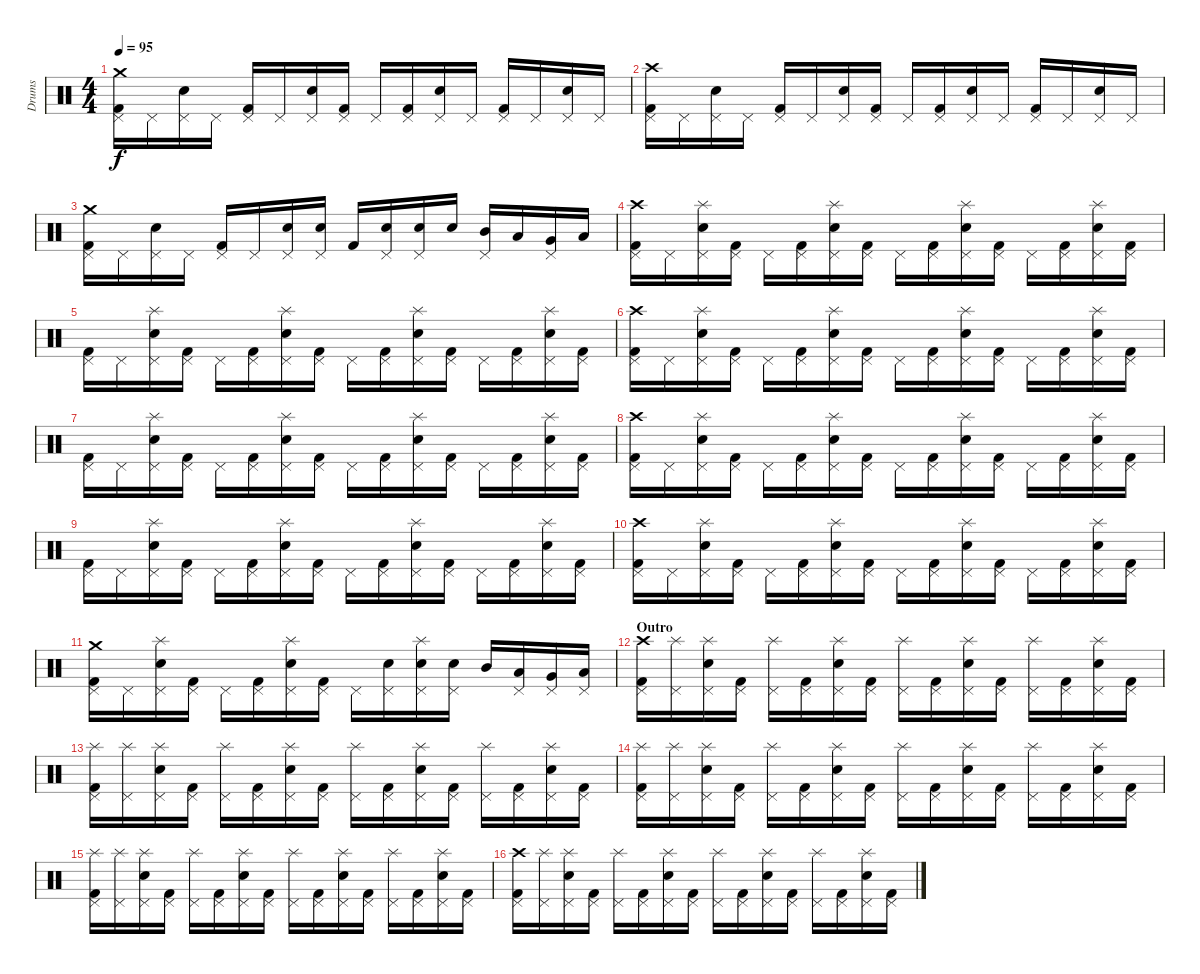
\track ("Drums" "Drums") {instrument percussion}
\staff {score}
\articulation defaults
\ts (4 4)
\tempo 95
\clef neutral
\ks c
("Kick (hit) 2" "Pedal Hi-Hat (hit)" "Crash medium (hit)").16{dy f} "Pedal Hi-Hat (hit)".16 ("Snare (hit) 2" "Pedal Hi-Hat (hit)").16 "Pedal Hi-Hat (hit)".16 ("Kick (hit) 2" "Pedal Hi-Hat (hit)").16 "Pedal Hi-Hat (hit)".16 ("Snare (hit) 2" "Pedal Hi-Hat (hit)").16 ("Kick (hit) 2" "Pedal Hi-Hat (hit)").16 "Pedal Hi-Hat (hit)".16 ("Kick (hit) 2" "Pedal Hi-Hat (hit)").16 ("Snare (hit) 2" "Pedal Hi-Hat (hit)").16 "Pedal Hi-Hat (hit)".16 ("Kick (hit) 2" "Pedal Hi-Hat (hit)").16 "Pedal Hi-Hat (hit)".16 ("Snare (hit) 2" "Pedal Hi-Hat (hit)").16 "Pedal Hi-Hat (hit)".16 |
("Kick (hit) 2" "Pedal Hi-Hat (hit)" "Crash high (hit)").16 "Pedal Hi-Hat (hit)".16 ("Snare (hit) 2" "Pedal Hi-Hat (hit)").16 "Pedal Hi-Hat (hit)".16 ("Kick (hit) 2" "Pedal Hi-Hat (hit)").16 "Pedal Hi-Hat (hit)".16 ("Snare (hit) 2" "Pedal Hi-Hat (hit)").16 ("Kick (hit) 2" "Pedal Hi-Hat (hit)").16 "Pedal Hi-Hat (hit)".16 ("Kick (hit) 2" "Pedal Hi-Hat (hit)").16 ("Snare (hit) 2" "Pedal Hi-Hat (hit)").16 "Pedal Hi-Hat (hit)".16 ("Kick (hit) 2" "Pedal Hi-Hat (hit)").16 "Pedal Hi-Hat (hit)".16 ("Snare (hit) 2" "Pedal Hi-Hat (hit)").16 "Pedal Hi-Hat (hit)".16 |
("Kick (hit) 2" "Pedal Hi-Hat (hit)" "Crash medium (hit)").16 "Pedal Hi-Hat (hit)".16 ("Snare (hit) 2" "Pedal Hi-Hat (hit)").16 "Pedal Hi-Hat (hit)".16 ("Kick (hit) 2" "Pedal Hi-Hat (hit)").16 "Pedal Hi-Hat (hit)".16 ("Snare (hit) 2" "Pedal Hi-Hat (hit)").16 ("Snare (hit) 2" "Pedal Hi-Hat (hit)").16 "Kick (hit) 2".16 ("Snare (hit) 2" "Pedal Hi-Hat (hit)").16 ("Snare (hit) 2" "Pedal Hi-Hat (hit)").16 "Snare (hit) 2".16 ("Mid Tom (hit)" "Pedal Hi-Hat (hit)").16 "Low Tom (hit)".16 ("Very Low Tom (hit)" "Pedal Hi-Hat (hit)").16 "Low Floor Tom (hit)".16 |
("Kick (hit) 2" "Pedal Hi-Hat (hit)" "Crash high (hit)").16 "Pedal Hi-Hat (hit)".16 ("Snare (hit) 2" "Pedal Hi-Hat (hit)" "Splash (hit)").16 ("Kick (hit) 2" "Pedal Hi-Hat (hit)").16 "Pedal Hi-Hat (hit)".16 ("Kick (hit) 2" "Pedal Hi-Hat (hit)").16 ("Snare (hit) 2" "Pedal Hi-Hat (hit)" "Splash (hit)").16 ("Kick (hit) 2" "Pedal Hi-Hat (hit)").16 "Pedal Hi-Hat (hit)".16 ("Kick (hit) 2" "Pedal Hi-Hat (hit)").16 ("Snare (hit) 2" "Pedal Hi-Hat (hit)" "Splash (hit)").16 ("Kick (hit) 2" "Pedal Hi-Hat (hit)").16 "Pedal Hi-Hat (hit)".16 ("Kick (hit) 2" "Pedal Hi-Hat (hit)").16 ("Snare (hit) 2" "Pedal Hi-Hat (hit)" "Splash (hit)").16 ("Kick (hit) 2" "Pedal Hi-Hat (hit)").16 |
("Kick (hit) 2" "Pedal Hi-Hat (hit)").16 "Pedal Hi-Hat (hit)".16 ("Snare (hit) 2" "Pedal Hi-Hat (hit)" "Splash (hit)").16 ("Kick (hit) 2" "Pedal Hi-Hat (hit)").16 "Pedal Hi-Hat (hit)".16 ("Kick (hit) 2" "Pedal Hi-Hat (hit)").16 ("Snare (hit) 2" "Pedal Hi-Hat (hit)" "Splash (hit)").16 ("Kick (hit) 2" "Pedal Hi-Hat (hit)").16 "Pedal Hi-Hat (hit)".16 ("Kick (hit) 2" "Pedal Hi-Hat (hit)").16 ("Snare (hit) 2" "Pedal Hi-Hat (hit)" "Splash (hit)").16 ("Kick (hit) 2" "Pedal Hi-Hat (hit)").16 "Pedal Hi-Hat (hit)".16 ("Kick (hit) 2" "Pedal Hi-Hat (hit)").16 ("Snare (hit) 2" "Pedal Hi-Hat (hit)" "Splash (hit)").16 ("Kick (hit) 2" "Pedal Hi-Hat (hit)").16 |
("Kick (hit) 2" "Pedal Hi-Hat (hit)" "Crash high (hit)").16 "Pedal Hi-Hat (hit)".16 ("Snare (hit) 2" "Pedal Hi-Hat (hit)" "Splash (hit)").16 ("Kick (hit) 2" "Pedal Hi-Hat (hit)").16 "Pedal Hi-Hat (hit)".16 ("Kick (hit) 2" "Pedal Hi-Hat (hit)").16 ("Snare (hit) 2" "Pedal Hi-Hat (hit)" "Splash (hit)").16 ("Kick (hit) 2" "Pedal Hi-Hat (hit)").16 "Pedal Hi-Hat (hit)".16 ("Kick (hit) 2" "Pedal Hi-Hat (hit)").16 ("Snare (hit) 2" "Pedal Hi-Hat (hit)" "Splash (hit)").16 ("Kick (hit) 2" "Pedal Hi-Hat (hit)").16 "Pedal Hi-Hat (hit)".16 ("Kick (hit) 2" "Pedal Hi-Hat (hit)").16 ("Snare (hit) 2" "Pedal Hi-Hat (hit)" "Splash (hit)").16 ("Kick (hit) 2" "Pedal Hi-Hat (hit)").16 |
("Kick (hit) 2" "Pedal Hi-Hat (hit)").16 "Pedal Hi-Hat (hit)".16 ("Snare (hit) 2" "Pedal Hi-Hat (hit)" "Splash (hit)").16 ("Kick (hit) 2" "Pedal Hi-Hat (hit)").16 "Pedal Hi-Hat (hit)".16 ("Kick (hit) 2" "Pedal Hi-Hat (hit)").16 ("Snare (hit) 2" "Pedal Hi-Hat (hit)" "Splash (hit)").16 ("Kick (hit) 2" "Pedal Hi-Hat (hit)").16 "Pedal Hi-Hat (hit)".16 ("Kick (hit) 2" "Pedal Hi-Hat (hit)").16 ("Snare (hit) 2" "Pedal Hi-Hat (hit)" "Splash (hit)").16 ("Kick (hit) 2" "Pedal Hi-Hat (hit)").16 "Pedal Hi-Hat (hit)".16 ("Kick (hit) 2" "Pedal Hi-Hat (hit)").16 ("Snare (hit) 2" "Pedal Hi-Hat (hit)" "Splash (hit)").16 ("Kick (hit) 2" "Pedal Hi-Hat (hit)").16 |
("Kick (hit) 2" "Pedal Hi-Hat (hit)" "Crash high (hit)").16 "Pedal Hi-Hat (hit)".16 ("Snare (hit) 2" "Pedal Hi-Hat (hit)" "Splash (hit)").16 ("Kick (hit) 2" "Pedal Hi-Hat (hit)").16 "Pedal Hi-Hat (hit)".16 ("Kick (hit) 2" "Pedal Hi-Hat (hit)").16 ("Snare (hit) 2" "Pedal Hi-Hat (hit)" "Splash (hit)").16 ("Kick (hit) 2" "Pedal Hi-Hat (hit)").16 "Pedal Hi-Hat (hit)".16 ("Kick (hit) 2" "Pedal Hi-Hat (hit)").16 ("Snare (hit) 2" "Pedal Hi-Hat (hit)" "Splash (hit)").16 ("Kick (hit) 2" "Pedal Hi-Hat (hit)").16 "Pedal Hi-Hat (hit)".16 ("Kick (hit) 2" "Pedal Hi-Hat (hit)").16 ("Snare (hit) 2" "Pedal Hi-Hat (hit)" "Splash (hit)").16 ("Kick (hit) 2" "Pedal Hi-Hat (hit)").16 |
("Kick (hit) 2" "Pedal Hi-Hat (hit)").16 "Pedal Hi-Hat (hit)".16 ("Snare (hit) 2" "Pedal Hi-Hat (hit)" "Splash (hit)").16 ("Kick (hit) 2" "Pedal Hi-Hat (hit)").16 "Pedal Hi-Hat (hit)".16 ("Kick (hit) 2" "Pedal Hi-Hat (hit)").16 ("Snare (hit) 2" "Pedal Hi-Hat (hit)" "Splash (hit)").16 ("Kick (hit) 2" "Pedal Hi-Hat (hit)").16 "Pedal Hi-Hat (hit)".16 ("Kick (hit) 2" "Pedal Hi-Hat (hit)").16 ("Snare (hit) 2" "Pedal Hi-Hat (hit)" "Splash (hit)").16 ("Kick (hit) 2" "Pedal Hi-Hat (hit)").16 "Pedal Hi-Hat (hit)".16 ("Kick (hit) 2" "Pedal Hi-Hat (hit)").16 ("Snare (hit) 2" "Pedal Hi-Hat (hit)" "Splash (hit)").16 ("Kick (hit) 2" "Pedal Hi-Hat (hit)").16 |
("Kick (hit) 2" "Pedal Hi-Hat (hit)" "Crash high (hit)").16 "Pedal Hi-Hat (hit)".16 ("Snare (hit) 2" "Pedal Hi-Hat (hit)" "Splash (hit)").16 ("Kick (hit) 2" "Pedal Hi-Hat (hit)").16 "Pedal Hi-Hat (hit)".16 ("Kick (hit) 2" "Pedal Hi-Hat (hit)").16 ("Snare (hit) 2" "Pedal Hi-Hat (hit)" "Splash (hit)").16 ("Kick (hit) 2" "Pedal Hi-Hat (hit)").16 "Pedal Hi-Hat (hit)".16 ("Kick (hit) 2" "Pedal Hi-Hat (hit)").16 ("Snare (hit) 2" "Pedal Hi-Hat (hit)" "Splash (hit)").16 ("Kick (hit) 2" "Pedal Hi-Hat (hit)").16 "Pedal Hi-Hat (hit)".16 ("Kick (hit) 2" "Pedal Hi-Hat (hit)").16 ("Snare (hit) 2" "Pedal Hi-Hat (hit)" "Splash (hit)").16 ("Kick (hit) 2" "Pedal Hi-Hat (hit)").16 |
("Kick (hit) 2" "Pedal Hi-Hat (hit)" "Crash medium (hit)").16 "Pedal Hi-Hat (hit)".16 ("Snare (hit) 2" "Pedal Hi-Hat (hit)" "Splash (hit)").16 ("Kick (hit) 2" "Pedal Hi-Hat (hit)").16 "Pedal Hi-Hat (hit)".16 ("Kick (hit) 2" "Pedal Hi-Hat (hit)").16 ("Snare (hit) 2" "Pedal Hi-Hat (hit)" "Splash (hit)").16 ("Kick (hit) 2" "Pedal Hi-Hat (hit)").16 "Pedal Hi-Hat (hit)".16 ("Snare (hit) 2" "Pedal Hi-Hat (hit)").16 ("Snare (hit) 2" "Pedal Hi-Hat (hit)" "Splash (hit)").16 ("Snare (hit) 2" "Pedal Hi-Hat (hit)").16 "Mid Tom (hit)".16 ("Low Tom (hit)" "Pedal Hi-Hat (hit)").16 ("Very Low Tom (hit)" "Pedal Hi-Hat (hit)").16 ("Low Floor Tom (hit)" "Pedal Hi-Hat (hit)").16 |
\section ("" "Outro")
("Kick (hit) 2" "Pedal Hi-Hat (hit)" "Crash high (hit)").16 ("Pedal Hi-Hat (hit)" "Splash (hit)").16 ("Snare (hit) 2" "Pedal Hi-Hat (hit)" "Splash (hit)").16 ("Kick (hit) 2" "Pedal Hi-Hat (hit)").16 ("Pedal Hi-Hat (hit)" "Splash (hit)").16 ("Kick (hit) 2" "Pedal Hi-Hat (hit)").16 ("Snare (hit) 2" "Pedal Hi-Hat (hit)" "Splash (hit)").16 ("Kick (hit) 2" "Pedal Hi-Hat (hit)").16 ("Pedal Hi-Hat (hit)" "Splash (hit)").16 ("Kick (hit) 2" "Pedal Hi-Hat (hit)").16 ("Snare (hit) 2" "Pedal Hi-Hat (hit)" "Splash (hit)").16 ("Kick (hit) 2" "Pedal Hi-Hat (hit)").16 ("Pedal Hi-Hat (hit)" "Splash (hit)").16 ("Kick (hit) 2" "Pedal Hi-Hat (hit)").16 ("Snare (hit) 2" "Pedal Hi-Hat (hit)" "Splash (hit)").16 ("Kick (hit) 2" "Pedal Hi-Hat (hit)").16 |
("Kick (hit) 2" "Pedal Hi-Hat (hit)" "Splash (hit)").16 ("Pedal Hi-Hat (hit)" "Splash (hit)").16 ("Snare (hit) 2" "Pedal Hi-Hat (hit)" "Splash (hit)").16 ("Kick (hit) 2" "Pedal Hi-Hat (hit)").16 ("Pedal Hi-Hat (hit)" "Splash (hit)").16 ("Kick (hit) 2" "Pedal Hi-Hat (hit)").16 ("Snare (hit) 2" "Pedal Hi-Hat (hit)" "Splash (hit)").16 ("Kick (hit) 2" "Pedal Hi-Hat (hit)").16 ("Pedal Hi-Hat (hit)" "Splash (hit)").16 ("Kick (hit) 2" "Pedal Hi-Hat (hit)").16 ("Snare (hit) 2" "Pedal Hi-Hat (hit)" "Splash (hit)").16 ("Kick (hit) 2" "Pedal Hi-Hat (hit)").16 ("Pedal Hi-Hat (hit)" "Splash (hit)").16 ("Kick (hit) 2" "Pedal Hi-Hat (hit)").16 ("Snare (hit) 2" "Pedal Hi-Hat (hit)" "Splash (hit)").16 ("Kick (hit) 2" "Pedal Hi-Hat (hit)").16 |
("Kick (hit) 2" "Pedal Hi-Hat (hit)" "Splash (hit)").16 ("Pedal Hi-Hat (hit)" "Splash (hit)").16 ("Snare (hit) 2" "Pedal Hi-Hat (hit)" "Splash (hit)").16 ("Kick (hit) 2" "Pedal Hi-Hat (hit)").16 ("Pedal Hi-Hat (hit)" "Splash (hit)").16 ("Kick (hit) 2" "Pedal Hi-Hat (hit)").16 ("Snare (hit) 2" "Pedal Hi-Hat (hit)" "Splash (hit)").16 ("Kick (hit) 2" "Pedal Hi-Hat (hit)").16 ("Pedal Hi-Hat (hit)" "Splash (hit)").16 ("Kick (hit) 2" "Pedal Hi-Hat (hit)").16 ("Snare (hit) 2" "Pedal Hi-Hat (hit)" "Splash (hit)").16 ("Kick (hit) 2" "Pedal Hi-Hat (hit)").16 ("Pedal Hi-Hat (hit)" "Splash (hit)").16 ("Kick (hit) 2" "Pedal Hi-Hat (hit)").16 ("Snare (hit) 2" "Pedal Hi-Hat (hit)" "Splash (hit)").16 ("Kick (hit) 2" "Pedal Hi-Hat (hit)").16 |
("Kick (hit) 2" "Pedal Hi-Hat (hit)" "Splash (hit)").16 ("Pedal Hi-Hat (hit)" "Splash (hit)").16 ("Snare (hit) 2" "Pedal Hi-Hat (hit)" "Splash (hit)").16 ("Kick (hit) 2" "Pedal Hi-Hat (hit)").16 ("Pedal Hi-Hat (hit)" "Splash (hit)").16 ("Kick (hit) 2" "Pedal Hi-Hat (hit)").16 ("Snare (hit) 2" "Pedal Hi-Hat (hit)" "Splash (hit)").16 ("Kick (hit) 2" "Pedal Hi-Hat (hit)").16 ("Pedal Hi-Hat (hit)" "Splash (hit)").16 ("Kick (hit) 2" "Pedal Hi-Hat (hit)").16 ("Snare (hit) 2" "Pedal Hi-Hat (hit)" "Splash (hit)").16 ("Kick (hit) 2" "Pedal Hi-Hat (hit)").16 ("Pedal Hi-Hat (hit)" "Splash (hit)").16 ("Kick (hit) 2" "Pedal Hi-Hat (hit)").16 ("Snare (hit) 2" "Pedal Hi-Hat (hit)" "Splash (hit)").16 ("Kick (hit) 2" "Pedal Hi-Hat (hit)").16 |
("Kick (hit) 2" "Pedal Hi-Hat (hit)" "Crash high (hit)").16 ("Pedal Hi-Hat (hit)" "Splash (hit)").16 ("Snare (hit) 2" "Pedal Hi-Hat (hit)" "Splash (hit)").16 ("Kick (hit) 2" "Pedal Hi-Hat (hit)").16 ("Pedal Hi-Hat (hit)" "Splash (hit)").16 ("Kick (hit) 2" "Pedal Hi-Hat (hit)").16 ("Snare (hit) 2" "Pedal Hi-Hat (hit)" "Splash (hit)").16 ("Kick (hit) 2" "Pedal Hi-Hat (hit)").16 ("Pedal Hi-Hat (hit)" "Splash (hit)").16 ("Kick (hit) 2" "Pedal Hi-Hat (hit)").16 ("Snare (hit) 2" "Pedal Hi-Hat (hit)" "Splash (hit)").16 ("Kick (hit) 2" "Pedal Hi-Hat (hit)").16 ("Pedal Hi-Hat (hit)" "Splash (hit)").16 ("Kick (hit) 2" "Pedal Hi-Hat (hit)").16 ("Snare (hit) 2" "Pedal Hi-Hat (hit)" "Splash (hit)").16 ("Kick (hit) 2" "Pedal Hi-Hat (hit)").16
